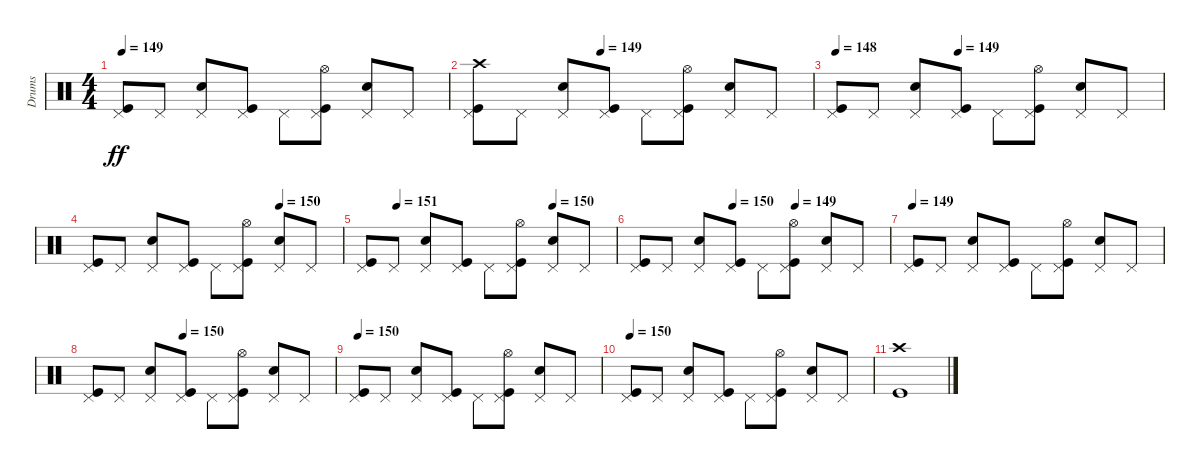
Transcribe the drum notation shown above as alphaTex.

\track ("Drums" "Drums") {instrument percussion}
\staff {score}
\articulation defaults
\ts (4 4)
\tempo 149
\clef neutral
\ks c
("Kick (hit)" "Pedal Hi-Hat (hit)").8{dy ff} "Pedal Hi-Hat (hit)".8 ("Pedal Hi-Hat (hit)" "Snare (hit) 2").8 ("Kick (hit)" "Pedal Hi-Hat (hit)").8 "Pedal Hi-Hat (hit)".8 ("Kick (hit)" "Pedal Hi-Hat (hit)" "Hi-Hat (open)").8 ("Pedal Hi-Hat (hit)" "Snare (hit) 2").8 "Pedal Hi-Hat (hit)".8 |
\tempo (149 0.375)
("Kick (hit)" "Pedal Hi-Hat (hit)" "Crash high (hit)").8 "Pedal Hi-Hat (hit)".8 ("Pedal Hi-Hat (hit)" "Snare (hit) 2").8 ("Kick (hit)" "Pedal Hi-Hat (hit)").8 "Pedal Hi-Hat (hit)".8 ("Kick (hit)" "Pedal Hi-Hat (hit)" "Hi-Hat (open)").8 ("Pedal Hi-Hat (hit)" "Snare (hit) 2").8 "Pedal Hi-Hat (hit)".8 |
\tempo 148
\tempo (149 0.375)
("Kick (hit)" "Pedal Hi-Hat (hit)").8 "Pedal Hi-Hat (hit)".8 ("Pedal Hi-Hat (hit)" "Snare (hit) 2").8 ("Kick (hit)" "Pedal Hi-Hat (hit)").8 "Pedal Hi-Hat (hit)".8 ("Kick (hit)" "Pedal Hi-Hat (hit)" "Hi-Hat (open)").8 ("Pedal Hi-Hat (hit)" "Snare (hit) 2").8 "Pedal Hi-Hat (hit)".8 |
\tempo (150 0.75)
("Kick (hit)" "Pedal Hi-Hat (hit)").8 "Pedal Hi-Hat (hit)".8 ("Pedal Hi-Hat (hit)" "Snare (hit) 2").8 ("Kick (hit)" "Pedal Hi-Hat (hit)").8 "Pedal Hi-Hat (hit)".8 ("Kick (hit)" "Pedal Hi-Hat (hit)" "Hi-Hat (open)").8 ("Pedal Hi-Hat (hit)" "Snare (hit) 2").8 "Pedal Hi-Hat (hit)".8 |
\tempo (151 0.125)
\tempo (150 0.75)
("Kick (hit)" "Pedal Hi-Hat (hit)").8 "Pedal Hi-Hat (hit)".8 ("Pedal Hi-Hat (hit)" "Snare (hit) 2").8 ("Kick (hit)" "Pedal Hi-Hat (hit)").8 "Pedal Hi-Hat (hit)".8 ("Kick (hit)" "Pedal Hi-Hat (hit)" "Hi-Hat (open)").8 ("Pedal Hi-Hat (hit)" "Snare (hit) 2").8 "Pedal Hi-Hat (hit)".8 |
\tempo (150 0.375)
\tempo (149 0.625)
("Kick (hit)" "Pedal Hi-Hat (hit)").8 "Pedal Hi-Hat (hit)".8 ("Pedal Hi-Hat (hit)" "Snare (hit) 2").8 ("Kick (hit)" "Pedal Hi-Hat (hit)").8 "Pedal Hi-Hat (hit)".8 ("Kick (hit)" "Pedal Hi-Hat (hit)" "Hi-Hat (open)").8 ("Pedal Hi-Hat (hit)" "Snare (hit) 2").8 "Pedal Hi-Hat (hit)".8 |
\tempo 149
("Kick (hit)" "Pedal Hi-Hat (hit)").8 "Pedal Hi-Hat (hit)".8 ("Pedal Hi-Hat (hit)" "Snare (hit) 2").8 ("Kick (hit)" "Pedal Hi-Hat (hit)").8 "Pedal Hi-Hat (hit)".8 ("Kick (hit)" "Pedal Hi-Hat (hit)" "Hi-Hat (open)").8 ("Pedal Hi-Hat (hit)" "Snare (hit) 2").8 "Pedal Hi-Hat (hit)".8 |
\tempo (150 0.375)
("Kick (hit)" "Pedal Hi-Hat (hit)").8 "Pedal Hi-Hat (hit)".8 ("Pedal Hi-Hat (hit)" "Snare (hit) 2").8 ("Kick (hit)" "Pedal Hi-Hat (hit)").8 "Pedal Hi-Hat (hit)".8 ("Kick (hit)" "Pedal Hi-Hat (hit)" "Hi-Hat (open)").8 ("Pedal Hi-Hat (hit)" "Snare (hit) 2").8 "Pedal Hi-Hat (hit)".8 |
\tempo 150
("Kick (hit)" "Pedal Hi-Hat (hit)").8 "Pedal Hi-Hat (hit)".8 ("Pedal Hi-Hat (hit)" "Snare (hit) 2").8 ("Kick (hit)" "Pedal Hi-Hat (hit)").8 "Pedal Hi-Hat (hit)".8 ("Kick (hit)" "Pedal Hi-Hat (hit)" "Hi-Hat (open)").8 ("Pedal Hi-Hat (hit)" "Snare (hit) 2").8 "Pedal Hi-Hat (hit)".8 |
\tempo 150
("Kick (hit)" "Pedal Hi-Hat (hit)").8 "Pedal Hi-Hat (hit)".8 ("Pedal Hi-Hat (hit)" "Snare (hit) 2").8 ("Kick (hit)" "Pedal Hi-Hat (hit)").8 "Pedal Hi-Hat (hit)".8 ("Kick (hit)" "Pedal Hi-Hat (hit)" "Hi-Hat (open)").8 ("Pedal Hi-Hat (hit)" "Snare (hit) 2").8 "Pedal Hi-Hat (hit)".8 |
("Kick (hit)" "Crash high (hit)").1
